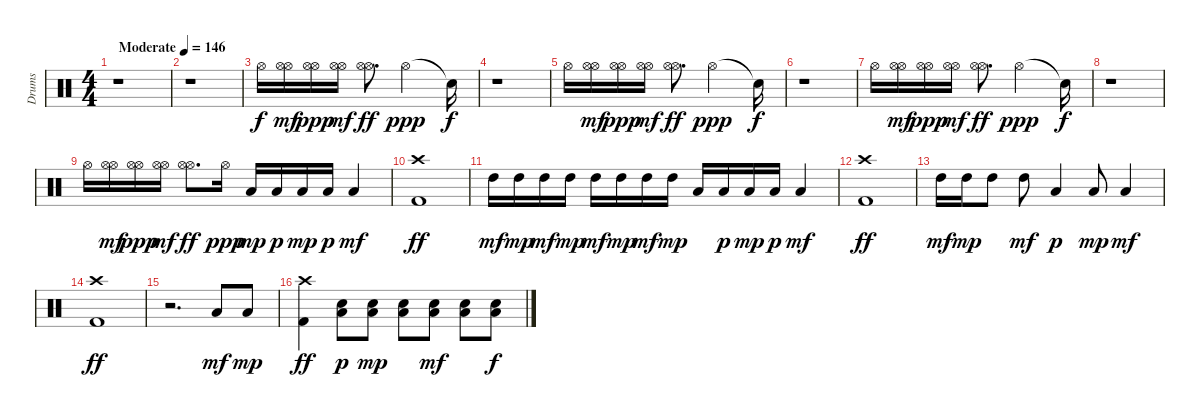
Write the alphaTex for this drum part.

\track ("Drums" "Drums") {instrument percussion}
\staff {score}
\articulation defaults
\ts (4 4)
\tempo (146 "Moderate")
\clef neutral
\ks c
r.1{dy f} |
r.1 |
"Hi-Hat (open)".16 ("Hi-Hat (open)" "Hi-Hat (open)").16{dy mf} ("Hi-Hat (open)" "Hi-Hat (open)").16{dy ppp} ("Hi-Hat (open)" "Hi-Hat (open)").16{dy mf} ("Hi-Hat (open)" "Hi-Hat (open)").8{d dy ff} "Hi-Hat (open)".2{dy ppp} "Snare (hit)"{t}.16{dy f} |
r.1 |
"Hi-Hat (open)".16 ("Hi-Hat (open)" "Hi-Hat (open)").16{dy mf} ("Hi-Hat (open)" "Hi-Hat (open)").16{dy ppp} ("Hi-Hat (open)" "Hi-Hat (open)").16{dy mf} ("Hi-Hat (open)" "Hi-Hat (open)").8{d dy ff} "Hi-Hat (open)".2{dy ppp} "Snare (hit)"{t}.16{dy f} |
r.1 |
"Hi-Hat (open)".16 ("Hi-Hat (open)" "Hi-Hat (open)").16{dy mf} ("Hi-Hat (open)" "Hi-Hat (open)").16{dy ppp} ("Hi-Hat (open)" "Hi-Hat (open)").16{dy mf} ("Hi-Hat (open)" "Hi-Hat (open)").8{d dy ff} "Hi-Hat (open)".2{dy ppp} "Snare (hit)"{t}.16{dy f} |
r.1 |
"Hi-Hat (open)".16 ("Hi-Hat (open)" "Hi-Hat (open)").16{dy mf} ("Hi-Hat (open)" "Hi-Hat (open)").16{dy ppp} ("Hi-Hat (open)" "Hi-Hat (open)").16{dy mf} ("Hi-Hat (open)" "Hi-Hat (open)").8{d dy ff} "Hi-Hat (open)".16{dy ppp} "Low Tom (hit)".16{dy mp} "Low Tom (hit)".16{dy p} "Low Tom (hit)".16{dy mp} "Low Tom (hit)".16{dy p} "Low Tom (hit)".4{dy mf} |
("Kick (hit) 2" "Crash high (hit)").1{dy ff} |
"High Tom (hit)".16{dy mf} "High Tom (hit)".16{dy mp} "High Tom (hit)".16{dy mf} "High Tom (hit)".16{dy mp} "High Tom (hit)".16{dy mf} "High Tom (hit)".16{dy mp} "High Tom (hit)".16{dy mf} "High Tom (hit)".16{dy mp} "Low Tom (hit)".16{balance 8} "Low Tom (hit)".16{dy p} "Low Tom (hit)".16{dy mp} "Low Tom (hit)".16{dy p} "Low Floor Tom (hit)".4{dy mf} |
("Kick (hit) 2" "Crash high (hit)").1{dy ff} |
"High Tom (hit)".16{dy mf} "High Tom (hit)".16{dy mp} "High Tom (hit)".8{balance 6} "High Tom (hit)".8{dy mf} "Low Tom (hit)".4{dy p balance 8} "Low Floor Tom (hit)".8{dy mp} "Low Floor Tom (hit)".4{dy mf} |
("Kick (hit) 2" "Crash high (hit)").1{dy ff} |
r.2{d} "Low Floor Tom (hit)".8{dy mf} "Low Floor Tom (hit)".8{dy mp} |
("Kick (hit) 2" "Crash high (hit)").4{dy ff} ("Snare (hit) 2" "Low Floor Tom (hit)").8{dy p} ("Snare (hit) 2" "Low Floor Tom (hit)").8{dy mp} ("Snare (hit) 2" "Low Floor Tom (hit)").8 ("Snare (hit) 2" "Low Floor Tom (hit)").8{dy mf} ("Snare (hit) 2" "Low Floor Tom (hit)").8 ("Snare (hit) 2" "Low Floor Tom (hit)").8{dy f}
